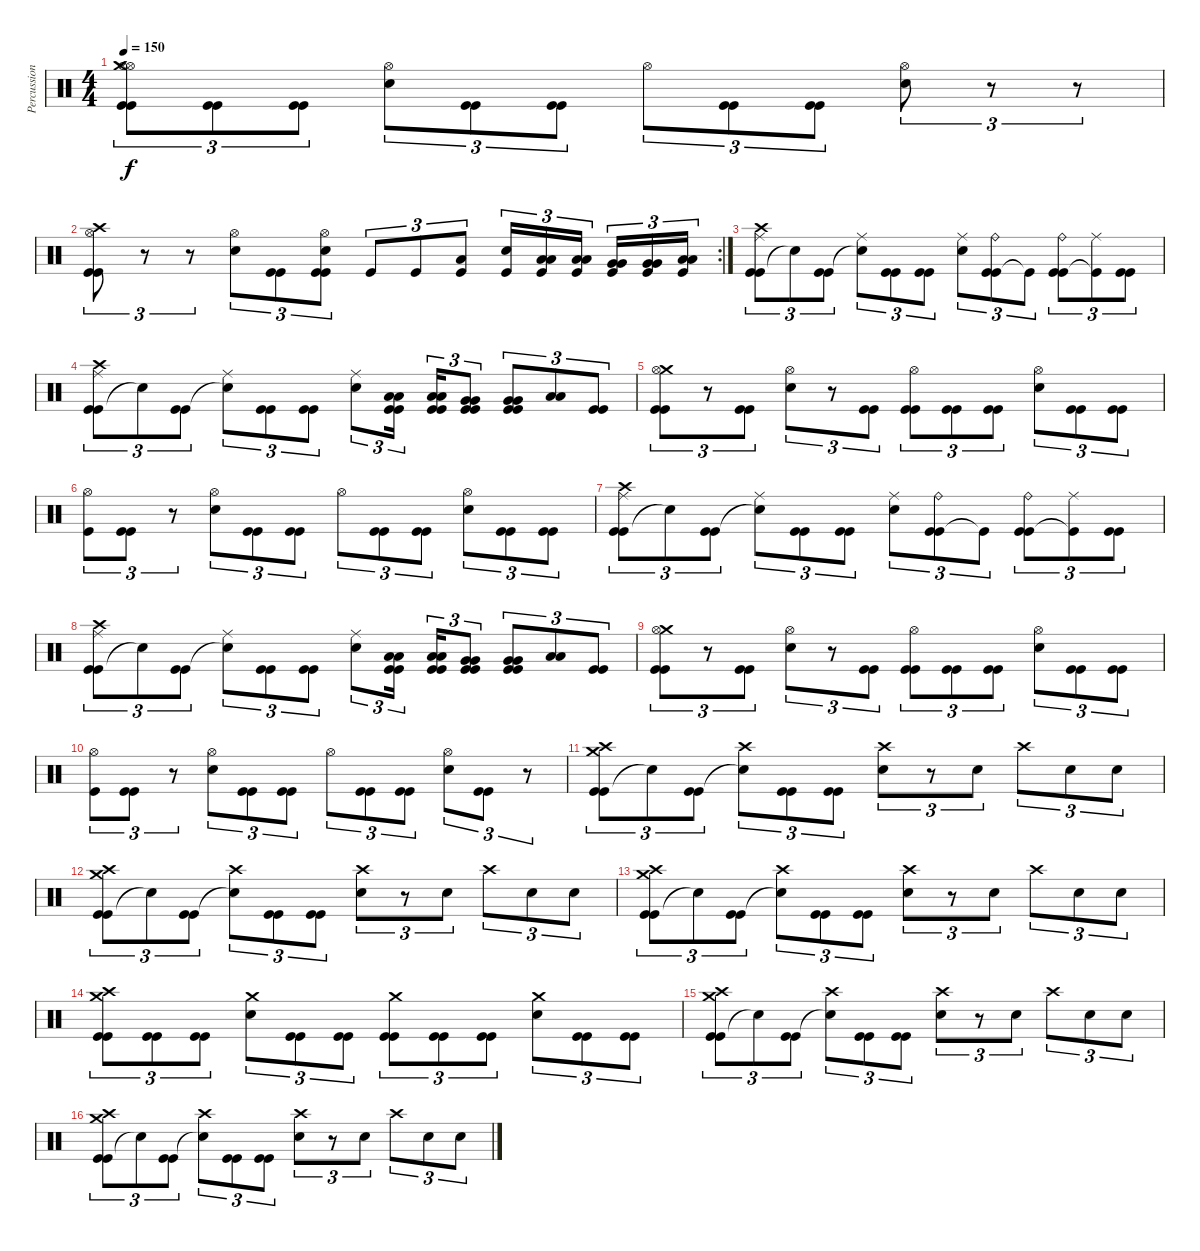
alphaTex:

\track ("Percussion" "Percussion") {instrument percussion}
\staff {score}
\articulation defaults
\ts (4 4)
\tempo 150
\clef neutral
\ks c
("Hi-Hat (open)" "Kick (hit)" "Crash medium (hit)" "Hi-Hat (open)" "Kick (hit)").8{tu (3 2) dy f} ("Kick (hit)" "Kick (hit)").8{tu (3 2)} ("Kick (hit)" "Kick (hit)").8{tu (3 2)} ("Hi-Hat (open)" "Snare (hit) 2").8{tu (3 2)} ("Kick (hit)" "Kick (hit)").8{tu (3 2)} ("Kick (hit)" "Kick (hit)").8{tu (3 2)} "Hi-Hat (open)".8{tu (3 2)} ("Kick (hit)" "Kick (hit)").8{tu (3 2)} ("Kick (hit)" "Kick (hit)").8{tu (3 2)} ("Hi-Hat (open)" "Snare (hit) 2").8{tu (3 2)} r.8{tu (3 2)} r.8{tu (3 2)} |
\rc 2
("Crash high (hit)" "Kick (hit)" "Hi-Hat (open)" "Kick (hit)").8{tu (3 2)} r.8{tu (3 2)} r.8{tu (3 2)} ("Snare (hit) 2" "Hi-Hat (open)").8{tu (3 2)} ("Kick (hit)" "Kick (hit)").8{tu (3 2)} ("Kick (hit)" "Kick (hit)" "Snare (hit) 2" "Hi-Hat (open)").8{tu (3 2)} "Kick (hit)".8{tu (3 2)} "Kick (hit)".8{tu (3 2)} ("Kick (hit)" "Low Tom (hit)").8{tu (3 2)} ("Kick (hit)" "Snare (hit) 2").16{tu (3 2)} ("Kick (hit)" "Low Tom (hit)" "Low Tom (hit)").16{tu (3 2)} ("Kick (hit)" "Low Tom (hit)" "Low Tom (hit)").16{tu (3 2) beam splitsecondary} ("Kick (hit)" "Very Low Tom (hit)" "Very Low Tom (hit)").16{tu (3 2)} ("Kick (hit)" "Very Low Tom (hit)" "Very Low Tom (hit)").16{tu (3 2)} ("Kick (hit)" "Low Floor Tom (hit)" "Low Floor Tom (hit)").16{tu (3 2)} |
("Kick (hit)" "Crash high (hit)" "Kick (hit)" "Ride (middle)").8{tu (3 2)} "Snare (hit)"{t}.8{tu (3 2)} ("Kick (hit)" "Kick (hit)").8{tu (3 2)} ("Snare (hit)"{t} "Ride (middle)").8{tu (3 2)} ("Kick (hit)" "Kick (hit)").8{tu (3 2)} ("Kick (hit)" "Kick (hit)").8{tu (3 2)} ("Snare (hit) 2" "Ride (middle)").8{tu (3 2)} ("Kick (hit)" "Kick (hit)" "Ride (bell)").8{tu (3 2)} "Kick (hit)"{t}.8{tu (3 2)} ("Kick (hit)" "Kick (hit)" "Ride (bell)").8{tu (3 2)} ("Kick (hit)"{t} "Ride (middle)").8{tu (3 2)} ("Kick (hit)" "Kick (hit)").8{tu (3 2)} |
("Kick (hit)" "Crash high (hit)" "Kick (hit)" "Ride (middle)").8{tu (3 2)} "Snare (hit)"{t}.8{tu (3 2)} ("Kick (hit)" "Kick (hit)").8{tu (3 2)} ("Snare (hit)"{t} "Ride (middle)").8{tu (3 2)} ("Kick (hit)" "Kick (hit)").8{tu (3 2)} ("Kick (hit)" "Kick (hit)").8{tu (3 2)} ("Snare (hit) 2" "Ride (middle)").8{tu (3 2)} ("Kick (hit)" "Kick (hit)" "Low Tom (hit)" "Low Tom (hit)").16{tu (3 2) beam splitsecondary} ("Kick (hit)" "Kick (hit)" "Low Tom (hit)" "Low Tom (hit)").16{tu (3 2)} ("Kick (hit)" "Kick (hit)" "Very Low Tom (hit)" "Very Low Tom (hit)").8{tu (3 2)} ("Kick (hit)" "Kick (hit)" "Very Low Tom (hit)" "Very Low Tom (hit)").8{tu (3 2)} ("Low Floor Tom (hit)" "Low Floor Tom (hit)").8{tu (3 2)} ("Kick (hit)" "Kick (hit)").8{tu (3 2)} |
("Crash medium (hit)" "Hi-Hat (open)" "Kick (hit)" "Kick (hit)").8{tu (3 2)} r.8{tu (3 2)} ("Kick (hit)" "Kick (hit)").8{tu (3 2)} ("Hi-Hat (open)" "Snare (hit) 2").8{tu (3 2)} r.8{tu (3 2)} ("Kick (hit)" "Kick (hit)").8{tu (3 2)} ("Hi-Hat (open)" "Kick (hit)" "Kick (hit)").8{tu (3 2)} ("Kick (hit)" "Kick (hit)").8{tu (3 2)} ("Kick (hit)" "Kick (hit)").8{tu (3 2)} ("Hi-Hat (open)" "Snare (hit) 2").8{tu (3 2)} ("Kick (hit)" "Kick (hit)").8{tu (3 2)} ("Kick (hit)" "Kick (hit)").8{tu (3 2)} |
("Kick (hit)" "Hi-Hat (open)").8{tu (3 2)} ("Kick (hit)" "Kick (hit)").8{tu (3 2)} r.8{tu (3 2)} ("Hi-Hat (open)" "Snare (hit) 2").8{tu (3 2)} ("Kick (hit)" "Kick (hit)").8{tu (3 2)} ("Kick (hit)" "Kick (hit)").8{tu (3 2)} "Hi-Hat (open)".8{tu (3 2)} ("Kick (hit)" "Kick (hit)").8{tu (3 2)} ("Kick (hit)" "Kick (hit)").8{tu (3 2)} ("Hi-Hat (open)" "Snare (hit) 2").8{tu (3 2)} ("Kick (hit)" "Kick (hit)").8{tu (3 2)} ("Kick (hit)" "Kick (hit)").8{tu (3 2)} |
("Kick (hit)" "Crash high (hit)" "Kick (hit)" "Ride (middle)").8{tu (3 2)} "Snare (hit)"{t}.8{tu (3 2)} ("Kick (hit)" "Kick (hit)").8{tu (3 2)} ("Snare (hit)"{t} "Ride (middle)").8{tu (3 2)} ("Kick (hit)" "Kick (hit)").8{tu (3 2)} ("Kick (hit)" "Kick (hit)").8{tu (3 2)} ("Snare (hit) 2" "Ride (middle)").8{tu (3 2)} ("Kick (hit)" "Kick (hit)" "Ride (bell)").8{tu (3 2)} "Kick (hit)"{t}.8{tu (3 2)} ("Kick (hit)" "Kick (hit)" "Ride (bell)").8{tu (3 2)} ("Kick (hit)"{t} "Ride (middle)").8{tu (3 2)} ("Kick (hit)" "Kick (hit)").8{tu (3 2)} |
("Kick (hit)" "Crash high (hit)" "Kick (hit)" "Ride (middle)").8{tu (3 2)} "Snare (hit)"{t}.8{tu (3 2)} ("Kick (hit)" "Kick (hit)").8{tu (3 2)} ("Snare (hit)"{t} "Ride (middle)").8{tu (3 2)} ("Kick (hit)" "Kick (hit)").8{tu (3 2)} ("Kick (hit)" "Kick (hit)").8{tu (3 2)} ("Snare (hit) 2" "Ride (middle)").8{tu (3 2)} ("Kick (hit)" "Kick (hit)" "Low Tom (hit)" "Low Tom (hit)").16{tu (3 2) beam splitsecondary} ("Kick (hit)" "Kick (hit)" "Low Tom (hit)" "Low Tom (hit)").16{tu (3 2)} ("Kick (hit)" "Kick (hit)" "Very Low Tom (hit)" "Very Low Tom (hit)").8{tu (3 2)} ("Kick (hit)" "Kick (hit)" "Very Low Tom (hit)" "Very Low Tom (hit)").8{tu (3 2)} ("Low Floor Tom (hit)" "Low Floor Tom (hit)").8{tu (3 2)} ("Kick (hit)" "Kick (hit)").8{tu (3 2)} |
("Crash medium (hit)" "Hi-Hat (open)" "Kick (hit)" "Kick (hit)").8{tu (3 2)} r.8{tu (3 2)} ("Kick (hit)" "Kick (hit)").8{tu (3 2)} ("Hi-Hat (open)" "Snare (hit) 2").8{tu (3 2)} r.8{tu (3 2)} ("Kick (hit)" "Kick (hit)").8{tu (3 2)} ("Hi-Hat (open)" "Kick (hit)" "Kick (hit)").8{tu (3 2)} ("Kick (hit)" "Kick (hit)").8{tu (3 2)} ("Kick (hit)" "Kick (hit)").8{tu (3 2)} ("Hi-Hat (open)" "Snare (hit) 2").8{tu (3 2)} ("Kick (hit)" "Kick (hit)").8{tu (3 2)} ("Kick (hit)" "Kick (hit)").8{tu (3 2)} |
("Kick (hit)" "Hi-Hat (open)").8{tu (3 2)} ("Kick (hit)" "Kick (hit)").8{tu (3 2)} r.8{tu (3 2)} ("Hi-Hat (open)" "Snare (hit) 2").8{tu (3 2)} ("Kick (hit)" "Kick (hit)").8{tu (3 2)} ("Kick (hit)" "Kick (hit)").8{tu (3 2)} "Hi-Hat (open)".8{tu (3 2)} ("Kick (hit)" "Kick (hit)").8{tu (3 2)} ("Kick (hit)" "Kick (hit)").8{tu (3 2)} ("Hi-Hat (open)" "Snare (hit) 2").8{tu (3 2)} ("Kick (hit)" "Kick (hit)").8{tu (3 2)} r.8{tu (3 2)} |
("Kick (hit)" "Crash medium (hit)" "Crash high (hit)" "Kick (hit)").8{tu (3 2)} "Snare (hit)"{t}.8{tu (3 2)} ("Kick (hit)" "Kick (hit)").8{tu (3 2)} ("Crash high (hit)" "Snare (hit)"{t}).8{tu (3 2)} ("Kick (hit)" "Kick (hit)").8{tu (3 2)} ("Kick (hit)" "Kick (hit)").8{tu (3 2)} ("Crash high (hit)" "Snare (hit) 2").8{tu (3 2)} r.8{tu (3 2)} "Snare (hit) 2".8{tu (3 2)} "Crash high (hit)".8{tu (3 2)} "Snare (hit) 2".8{tu (3 2)} "Snare (hit) 2".8{tu (3 2)} |
("Kick (hit)" "Crash medium (hit)" "Crash high (hit)" "Kick (hit)").8{tu (3 2)} "Snare (hit)"{t}.8{tu (3 2)} ("Kick (hit)" "Kick (hit)").8{tu (3 2)} ("Crash high (hit)" "Snare (hit)"{t}).8{tu (3 2)} ("Kick (hit)" "Kick (hit)").8{tu (3 2)} ("Kick (hit)" "Kick (hit)").8{tu (3 2)} ("Crash high (hit)" "Snare (hit) 2").8{tu (3 2)} r.8{tu (3 2)} "Snare (hit) 2".8{tu (3 2)} "Crash high (hit)".8{tu (3 2)} "Snare (hit) 2".8{tu (3 2)} "Snare (hit) 2".8{tu (3 2)} |
("Kick (hit)" "Crash medium (hit)" "Crash high (hit)" "Kick (hit)").8{tu (3 2)} "Snare (hit)"{t}.8{tu (3 2)} ("Kick (hit)" "Kick (hit)").8{tu (3 2)} ("Crash high (hit)" "Snare (hit)"{t}).8{tu (3 2)} ("Kick (hit)" "Kick (hit)").8{tu (3 2)} ("Kick (hit)" "Kick (hit)").8{tu (3 2)} ("Crash high (hit)" "Snare (hit) 2").8{tu (3 2)} r.8{tu (3 2)} "Snare (hit) 2".8{tu (3 2)} "Crash high (hit)".8{tu (3 2)} "Snare (hit) 2".8{tu (3 2)} "Snare (hit) 2".8{tu (3 2)} |
("Crash medium (hit)" "Crash high (hit)" "Kick (hit)" "Kick (hit)").8{tu (3 2)} ("Kick (hit)" "Kick (hit)").8{tu (3 2)} ("Kick (hit)" "Kick (hit)").8{tu (3 2)} ("Crash medium (hit)" "Snare (hit) 2").8{tu (3 2)} ("Kick (hit)" "Kick (hit)").8{tu (3 2)} ("Kick (hit)" "Kick (hit)").8{tu (3 2)} ("Crash medium (hit)" "Kick (hit)" "Kick (hit)").8{tu (3 2)} ("Kick (hit)" "Kick (hit)").8{tu (3 2)} ("Kick (hit)" "Kick (hit)").8{tu (3 2)} ("Crash medium (hit)" "Snare (hit) 2").8{tu (3 2)} ("Kick (hit)" "Kick (hit)").8{tu (3 2)} ("Kick (hit)" "Kick (hit)").8{tu (3 2)} |
("Kick (hit)" "Crash medium (hit)" "Crash high (hit)" "Kick (hit)").8{tu (3 2)} "Snare (hit)"{t}.8{tu (3 2)} ("Kick (hit)" "Kick (hit)").8{tu (3 2)} ("Crash high (hit)" "Snare (hit)"{t}).8{tu (3 2)} ("Kick (hit)" "Kick (hit)").8{tu (3 2)} ("Kick (hit)" "Kick (hit)").8{tu (3 2)} ("Crash high (hit)" "Snare (hit) 2").8{tu (3 2)} r.8{tu (3 2)} "Snare (hit) 2".8{tu (3 2)} "Crash high (hit)".8{tu (3 2)} "Snare (hit) 2".8{tu (3 2)} "Snare (hit) 2".8{tu (3 2)} |
("Kick (hit)" "Crash medium (hit)" "Crash high (hit)" "Kick (hit)").8{tu (3 2)} "Snare (hit)"{t}.8{tu (3 2)} ("Kick (hit)" "Kick (hit)").8{tu (3 2)} ("Crash high (hit)" "Snare (hit)"{t}).8{tu (3 2)} ("Kick (hit)" "Kick (hit)").8{tu (3 2)} ("Kick (hit)" "Kick (hit)").8{tu (3 2)} ("Crash high (hit)" "Snare (hit) 2").8{tu (3 2)} r.8{tu (3 2)} "Snare (hit) 2".8{tu (3 2)} "Crash high (hit)".8{tu (3 2)} "Snare (hit) 2".8{tu (3 2)} "Snare (hit) 2".8{tu (3 2)}
